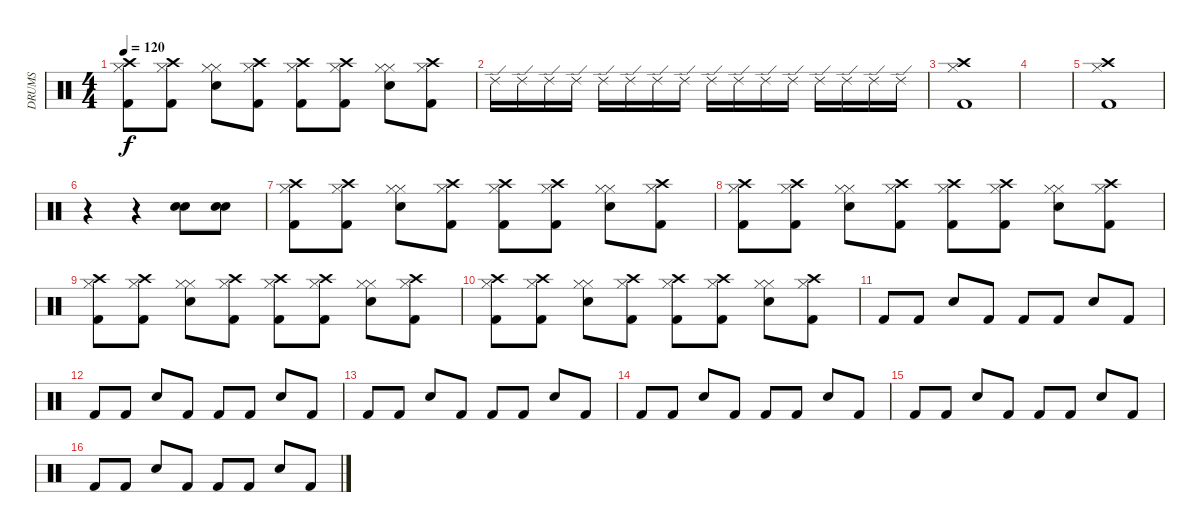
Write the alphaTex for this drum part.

\track ("DRUMS" "DRUMS") {instrument percussion}
\staff {score}
\articulation defaults
\ts (4 4)
\tempo 120
\clef neutral
\ks c
("Kick (hit) 2" "Crash high (hit)" "Hi-Hat (closed)").8{dy f} ("Kick (hit) 2" "Crash high (hit)" "Hi-Hat (closed)").8 ("Snare (hit) 2" "Hi-Hat (closed)" "Hi-Hat (closed)").8 ("Kick (hit) 2" "Crash high (hit)" "Hi-Hat (closed)").8 ("Kick (hit) 2" "Crash high (hit)" "Hi-Hat (closed)").8 ("Kick (hit) 2" "Crash high (hit)" "Hi-Hat (closed)").8 ("Snare (hit) 2" "Hi-Hat (closed)" "Hi-Hat (closed)").8 ("Kick (hit) 2" "Crash high (hit)" "Hi-Hat (closed)").8 |
"Ride (edge) 2".16 "Ride (edge) 2".16 "Ride (edge) 2".16 "Ride (edge) 2".16 "Ride (edge) 2".16 "Ride (edge) 2".16 "Ride (edge) 2".16 "Ride (edge) 2".16 "Ride (edge) 2".16 "Ride (edge) 2".16 "Ride (edge) 2".16 "Ride (edge) 2".16 "Ride (edge) 2".16 "Ride (edge) 2".16 "Ride (edge) 2".16 "Ride (edge) 2".16 |
("Kick (hit) 2" "Crash high (hit)" "Hi-Hat (closed)").1 |
|
("Kick (hit) 2" "Crash high (hit)" "Hi-Hat (closed)").1 |
r.4 r.4 ("Electric Snare (hit)" "Snare (hit) 2").8 ("Electric Snare (hit)" "Snare (hit) 2").8 |
("Kick (hit) 2" "Crash high (hit)" "Hi-Hat (closed)").8 ("Kick (hit) 2" "Crash high (hit)" "Hi-Hat (closed)").8 ("Snare (hit) 2" "Hi-Hat (closed)" "Hi-Hat (closed)").8 ("Kick (hit) 2" "Crash high (hit)" "Hi-Hat (closed)").8 ("Kick (hit) 2" "Crash high (hit)" "Hi-Hat (closed)").8 ("Kick (hit) 2" "Crash high (hit)" "Hi-Hat (closed)").8 ("Snare (hit) 2" "Hi-Hat (closed)" "Hi-Hat (closed)").8 ("Kick (hit) 2" "Crash high (hit)" "Hi-Hat (closed)").8 |
("Kick (hit) 2" "Crash high (hit)" "Hi-Hat (closed)").8 ("Kick (hit) 2" "Crash high (hit)" "Hi-Hat (closed)").8 ("Snare (hit) 2" "Hi-Hat (closed)" "Hi-Hat (closed)").8 ("Kick (hit) 2" "Crash high (hit)" "Hi-Hat (closed)").8 ("Kick (hit) 2" "Crash high (hit)" "Hi-Hat (closed)").8 ("Kick (hit) 2" "Crash high (hit)" "Hi-Hat (closed)").8 ("Snare (hit) 2" "Hi-Hat (closed)" "Hi-Hat (closed)").8 ("Kick (hit) 2" "Crash high (hit)" "Hi-Hat (closed)").8 |
("Kick (hit) 2" "Crash high (hit)" "Hi-Hat (closed)").8 ("Kick (hit) 2" "Crash high (hit)" "Hi-Hat (closed)").8 ("Snare (hit) 2" "Hi-Hat (closed)" "Hi-Hat (closed)").8 ("Kick (hit) 2" "Crash high (hit)" "Hi-Hat (closed)").8 ("Kick (hit) 2" "Crash high (hit)" "Hi-Hat (closed)").8 ("Kick (hit) 2" "Crash high (hit)" "Hi-Hat (closed)").8 ("Snare (hit) 2" "Hi-Hat (closed)" "Hi-Hat (closed)").8 ("Kick (hit) 2" "Crash high (hit)" "Hi-Hat (closed)").8 |
("Kick (hit) 2" "Crash high (hit)" "Hi-Hat (closed)").8 ("Kick (hit) 2" "Crash high (hit)" "Hi-Hat (closed)").8 ("Snare (hit) 2" "Hi-Hat (closed)" "Hi-Hat (closed)").8 ("Kick (hit) 2" "Crash high (hit)" "Hi-Hat (closed)").8 ("Kick (hit) 2" "Crash high (hit)" "Hi-Hat (closed)").8 ("Kick (hit) 2" "Crash high (hit)" "Hi-Hat (closed)").8 ("Snare (hit) 2" "Hi-Hat (closed)" "Hi-Hat (closed)").8 ("Kick (hit) 2" "Crash high (hit)" "Hi-Hat (closed)").8 |
"Kick (hit) 2".8 "Kick (hit) 2".8 "Snare (hit) 2".8 "Kick (hit) 2".8 "Kick (hit) 2".8 "Kick (hit) 2".8 "Snare (hit) 2".8 "Kick (hit) 2".8 |
"Kick (hit) 2".8 "Kick (hit) 2".8 "Snare (hit) 2".8 "Kick (hit) 2".8 "Kick (hit) 2".8 "Kick (hit) 2".8 "Snare (hit) 2".8 "Kick (hit) 2".8 |
"Kick (hit) 2".8 "Kick (hit) 2".8 "Snare (hit) 2".8 "Kick (hit) 2".8 "Kick (hit) 2".8 "Kick (hit) 2".8 "Snare (hit) 2".8 "Kick (hit) 2".8 |
"Kick (hit) 2".8 "Kick (hit) 2".8 "Snare (hit) 2".8 "Kick (hit) 2".8 "Kick (hit) 2".8 "Kick (hit) 2".8 "Snare (hit) 2".8 "Kick (hit) 2".8 |
"Kick (hit) 2".8 "Kick (hit) 2".8 "Snare (hit) 2".8 "Kick (hit) 2".8 "Kick (hit) 2".8 "Kick (hit) 2".8 "Snare (hit) 2".8 "Kick (hit) 2".8 |
"Kick (hit) 2".8 "Kick (hit) 2".8 "Snare (hit) 2".8 "Kick (hit) 2".8 "Kick (hit) 2".8 "Kick (hit) 2".8 "Snare (hit) 2".8 "Kick (hit) 2".8
